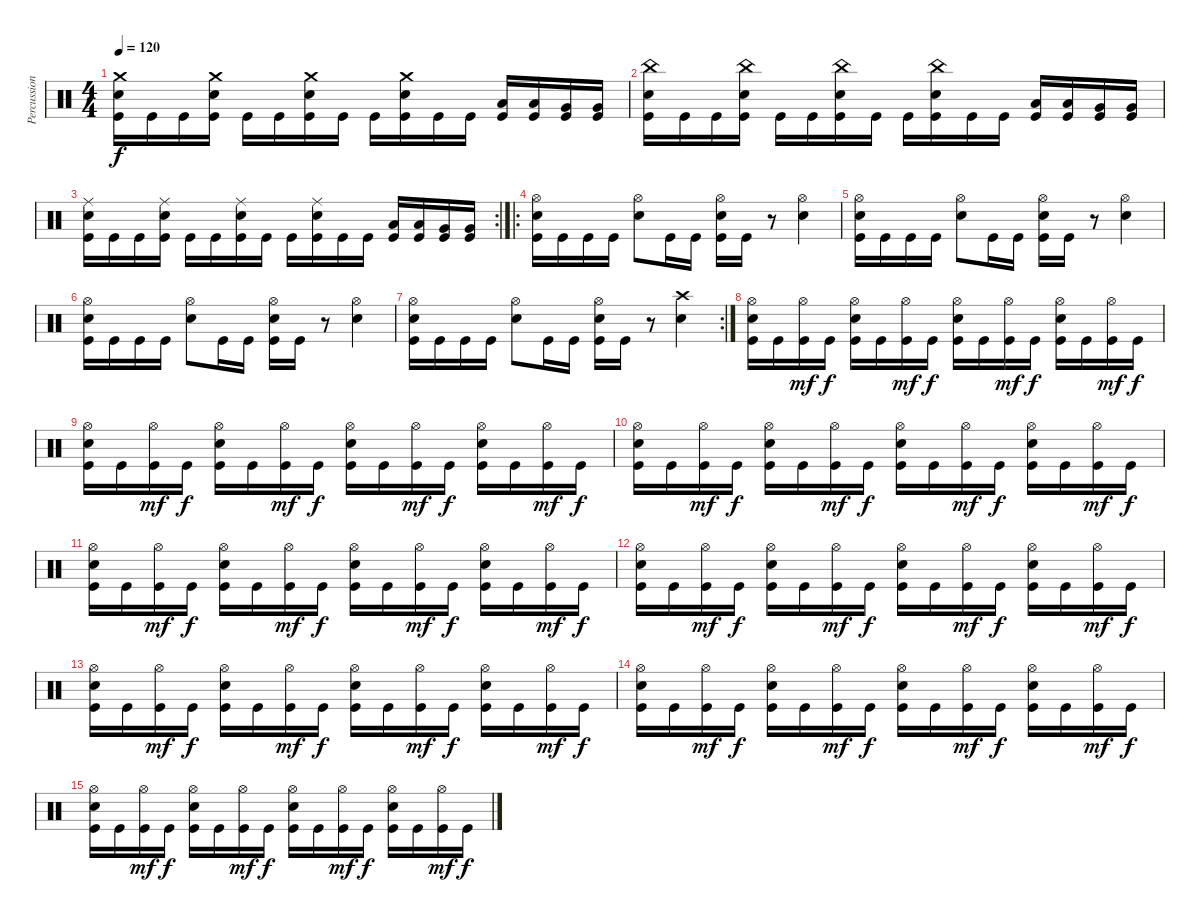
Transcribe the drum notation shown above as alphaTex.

\track ("Percussions" "Percussion") {instrument percussion}
\staff {score}
\articulation defaults
\ts (4 4)
\tempo 120
\clef neutral
\ks c
("Kick (hit)" "Electric Snare (hit)" "Crash medium (hit)").16{dy f} "Kick (hit)".16 "Kick (hit)".16 ("Kick (hit)" "Electric Snare (hit)" "Crash medium (hit)").16 "Kick (hit)".16 "Kick (hit)".16 ("Kick (hit)" "Electric Snare (hit)" "Crash medium (hit)").16 "Kick (hit)".16 "Kick (hit)".16 ("Kick (hit)" "Electric Snare (hit)" "Crash medium (hit)").16 "Kick (hit)".16 "Kick (hit)".16 ("Kick (hit)" "Low Tom (hit)").16 ("Kick (hit)" "Low Tom (hit)").16 ("Kick (hit)" "Very Low Tom (hit)").16 ("Kick (hit)" "Very Low Tom (hit)").16 |
("Kick (hit)" "Electric Snare (hit)" "China (hit)").16 "Kick (hit)".16 "Kick (hit)".16 ("Kick (hit)" "Electric Snare (hit)" "China (hit)").16 "Kick (hit)".16 "Kick (hit)".16 ("Kick (hit)" "Electric Snare (hit)" "China (hit)").16 "Kick (hit)".16 "Kick (hit)".16 ("Kick (hit)" "Electric Snare (hit)" "China (hit)").16 "Kick (hit)".16 "Kick (hit)".16 ("Kick (hit)" "Low Tom (hit)").16 ("Kick (hit)" "Low Tom (hit)").16 ("Kick (hit)" "Very Low Tom (hit)").16 ("Kick (hit)" "Very Low Tom (hit)").16 |
\rc 2
("Kick (hit)" "Electric Snare (hit)" "Ride (middle)").16 "Kick (hit)".16 "Kick (hit)".16 ("Kick (hit)" "Electric Snare (hit)" "Ride (middle)").16 "Kick (hit)".16 "Kick (hit)".16 ("Kick (hit)" "Electric Snare (hit)" "Ride (middle)").16 "Kick (hit)".16 "Kick (hit)".16 ("Kick (hit)" "Electric Snare (hit)" "Ride (middle)").16 "Kick (hit)".16 "Kick (hit)".16 ("Kick (hit)" "Low Tom (hit)").16 ("Kick (hit)" "Low Tom (hit)").16 ("Kick (hit)" "Very Low Tom (hit)").16 ("Kick (hit)" "Very Low Tom (hit)").16 |
\ro
("Kick (hit)" "Electric Snare (hit)" "Hi-Hat (open)").16 "Kick (hit)".16 "Kick (hit)".16 "Kick (hit)".16 ("Electric Snare (hit)" "Hi-Hat (open)").8 "Kick (hit)".16 "Kick (hit)".16 ("Kick (hit)" "Electric Snare (hit)" "Hi-Hat (open)").16 "Kick (hit)".16 r.8 ("Electric Snare (hit)" "Hi-Hat (open)").4 |
("Kick (hit)" "Electric Snare (hit)" "Hi-Hat (open)").16 "Kick (hit)".16 "Kick (hit)".16 "Kick (hit)".16 ("Electric Snare (hit)" "Hi-Hat (open)").8 "Kick (hit)".16 "Kick (hit)".16 ("Kick (hit)" "Electric Snare (hit)" "Hi-Hat (open)").16 "Kick (hit)".16 r.8 ("Electric Snare (hit)" "Hi-Hat (open)").4 |
("Kick (hit)" "Electric Snare (hit)" "Hi-Hat (open)").16 "Kick (hit)".16 "Kick (hit)".16 "Kick (hit)".16 ("Electric Snare (hit)" "Hi-Hat (open)").8 "Kick (hit)".16 "Kick (hit)".16 ("Kick (hit)" "Electric Snare (hit)" "Hi-Hat (open)").16 "Kick (hit)".16 r.8 ("Electric Snare (hit)" "Hi-Hat (open)").4 |
\rc 2
("Kick (hit)" "Electric Snare (hit)" "Hi-Hat (open)").16 "Kick (hit)".16 "Kick (hit)".16 "Kick (hit)".16 ("Electric Snare (hit)" "Hi-Hat (open)").8 "Kick (hit)".16 "Kick (hit)".16 ("Kick (hit)" "Electric Snare (hit)" "Hi-Hat (open)").16 "Kick (hit)".16 r.8 ("Electric Snare (hit)" "Crash high (hit)").4 |
("Kick (hit)" "Electric Snare (hit)" "Hi-Hat (open)").16{volume 8} "Kick (hit)".16 ("Kick (hit)" "Hi-Hat (open)").16{dy mf} "Kick (hit)".16{dy f} ("Kick (hit)" "Electric Snare (hit)" "Hi-Hat (open)").16 "Kick (hit)".16 ("Kick (hit)" "Hi-Hat (open)").16{dy mf} "Kick (hit)".16{dy f} ("Kick (hit)" "Electric Snare (hit)" "Hi-Hat (open)").16 "Kick (hit)".16 ("Kick (hit)" "Hi-Hat (open)").16{dy mf} "Kick (hit)".16{dy f} ("Kick (hit)" "Electric Snare (hit)" "Hi-Hat (open)").16 "Kick (hit)".16 ("Kick (hit)" "Hi-Hat (open)").16{dy mf} "Kick (hit)".16{dy f} |
("Kick (hit)" "Electric Snare (hit)" "Hi-Hat (open)").16 "Kick (hit)".16 ("Kick (hit)" "Hi-Hat (open)").16{dy mf} "Kick (hit)".16{dy f} ("Kick (hit)" "Electric Snare (hit)" "Hi-Hat (open)").16 "Kick (hit)".16 ("Kick (hit)" "Hi-Hat (open)").16{dy mf} "Kick (hit)".16{dy f} ("Kick (hit)" "Electric Snare (hit)" "Hi-Hat (open)").16 "Kick (hit)".16 ("Kick (hit)" "Hi-Hat (open)").16{dy mf} "Kick (hit)".16{dy f} ("Kick (hit)" "Electric Snare (hit)" "Hi-Hat (open)").16 "Kick (hit)".16 ("Kick (hit)" "Hi-Hat (open)").16{dy mf} "Kick (hit)".16{dy f} |
("Kick (hit)" "Electric Snare (hit)" "Hi-Hat (open)").16 "Kick (hit)".16 ("Kick (hit)" "Hi-Hat (open)").16{dy mf} "Kick (hit)".16{dy f} ("Kick (hit)" "Electric Snare (hit)" "Hi-Hat (open)").16 "Kick (hit)".16 ("Kick (hit)" "Hi-Hat (open)").16{dy mf} "Kick (hit)".16{dy f} ("Kick (hit)" "Electric Snare (hit)" "Hi-Hat (open)").16 "Kick (hit)".16 ("Kick (hit)" "Hi-Hat (open)").16{dy mf} "Kick (hit)".16{dy f} ("Kick (hit)" "Electric Snare (hit)" "Hi-Hat (open)").16 "Kick (hit)".16 ("Kick (hit)" "Hi-Hat (open)").16{dy mf} "Kick (hit)".16{dy f} |
("Kick (hit)" "Electric Snare (hit)" "Hi-Hat (open)").16 "Kick (hit)".16 ("Kick (hit)" "Hi-Hat (open)").16{dy mf} "Kick (hit)".16{dy f} ("Kick (hit)" "Electric Snare (hit)" "Hi-Hat (open)").16 "Kick (hit)".16 ("Kick (hit)" "Hi-Hat (open)").16{dy mf} "Kick (hit)".16{dy f} ("Kick (hit)" "Electric Snare (hit)" "Hi-Hat (open)").16 "Kick (hit)".16 ("Kick (hit)" "Hi-Hat (open)").16{dy mf} "Kick (hit)".16{dy f} ("Kick (hit)" "Electric Snare (hit)" "Hi-Hat (open)").16 "Kick (hit)".16 ("Kick (hit)" "Hi-Hat (open)").16{dy mf} "Kick (hit)".16{dy f} |
("Kick (hit)" "Electric Snare (hit)" "Hi-Hat (open)").16{volume 0} "Kick (hit)".16 ("Kick (hit)" "Hi-Hat (open)").16{dy mf} "Kick (hit)".16{dy f} ("Kick (hit)" "Electric Snare (hit)" "Hi-Hat (open)").16 "Kick (hit)".16 ("Kick (hit)" "Hi-Hat (open)").16{dy mf} "Kick (hit)".16{dy f} ("Kick (hit)" "Electric Snare (hit)" "Hi-Hat (open)").16 "Kick (hit)".16 ("Kick (hit)" "Hi-Hat (open)").16{dy mf} "Kick (hit)".16{dy f} ("Kick (hit)" "Electric Snare (hit)" "Hi-Hat (open)").16 "Kick (hit)".16 ("Kick (hit)" "Hi-Hat (open)").16{dy mf} "Kick (hit)".16{dy f} |
("Kick (hit)" "Electric Snare (hit)" "Hi-Hat (open)").16 "Kick (hit)".16 ("Kick (hit)" "Hi-Hat (open)").16{dy mf} "Kick (hit)".16{dy f} ("Kick (hit)" "Electric Snare (hit)" "Hi-Hat (open)").16 "Kick (hit)".16 ("Kick (hit)" "Hi-Hat (open)").16{dy mf} "Kick (hit)".16{dy f} ("Kick (hit)" "Electric Snare (hit)" "Hi-Hat (open)").16 "Kick (hit)".16 ("Kick (hit)" "Hi-Hat (open)").16{dy mf} "Kick (hit)".16{dy f} ("Kick (hit)" "Electric Snare (hit)" "Hi-Hat (open)").16 "Kick (hit)".16 ("Kick (hit)" "Hi-Hat (open)").16{dy mf} "Kick (hit)".16{dy f} |
("Kick (hit)" "Electric Snare (hit)" "Hi-Hat (open)").16 "Kick (hit)".16 ("Kick (hit)" "Hi-Hat (open)").16{dy mf} "Kick (hit)".16{dy f} ("Kick (hit)" "Electric Snare (hit)" "Hi-Hat (open)").16 "Kick (hit)".16 ("Kick (hit)" "Hi-Hat (open)").16{dy mf} "Kick (hit)".16{dy f} ("Kick (hit)" "Electric Snare (hit)" "Hi-Hat (open)").16 "Kick (hit)".16 ("Kick (hit)" "Hi-Hat (open)").16{dy mf} "Kick (hit)".16{dy f} ("Kick (hit)" "Electric Snare (hit)" "Hi-Hat (open)").16 "Kick (hit)".16 ("Kick (hit)" "Hi-Hat (open)").16{dy mf} "Kick (hit)".16{dy f} |
("Kick (hit)" "Electric Snare (hit)" "Hi-Hat (open)").16 "Kick (hit)".16 ("Kick (hit)" "Hi-Hat (open)").16{dy mf} "Kick (hit)".16{dy f} ("Kick (hit)" "Electric Snare (hit)" "Hi-Hat (open)").16 "Kick (hit)".16 ("Kick (hit)" "Hi-Hat (open)").16{dy mf} "Kick (hit)".16{dy f} ("Kick (hit)" "Electric Snare (hit)" "Hi-Hat (open)").16 "Kick (hit)".16 ("Kick (hit)" "Hi-Hat (open)").16{dy mf} "Kick (hit)".16{dy f} ("Kick (hit)" "Electric Snare (hit)" "Hi-Hat (open)").16 "Kick (hit)".16 ("Kick (hit)" "Hi-Hat (open)").16{dy mf} "Kick (hit)".16{dy f}
